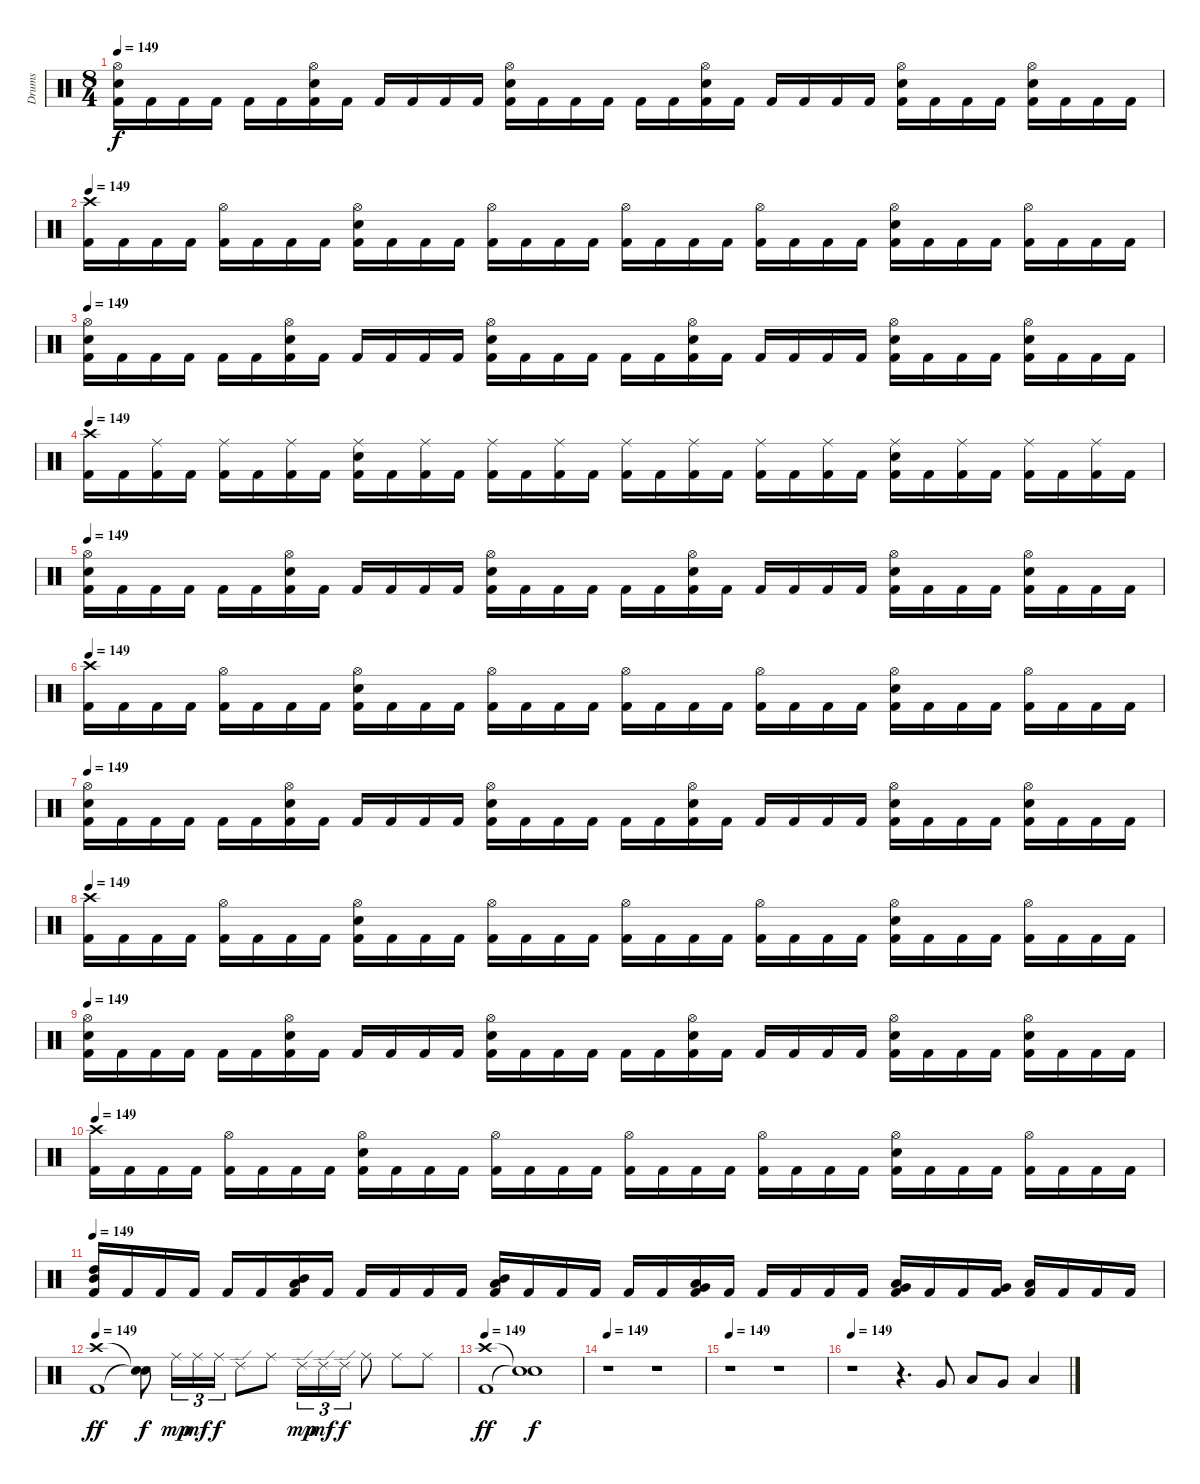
\track ("Drums" "Drums") {instrument percussion}
\staff {score}
\articulation defaults
\ts (8 4)
\tempo 149
\clef neutral
\ks c
("Hi-Hat (open)" "Electric Snare (hit)" "Kick (hit) 2").16{dy f} "Kick (hit) 2".16 "Kick (hit) 2".16 "Kick (hit) 2".16 "Kick (hit) 2".16 "Kick (hit) 2".16 ("Hi-Hat (open)" "Electric Snare (hit)" "Kick (hit) 2").16 "Kick (hit) 2".16 "Kick (hit) 2".16 "Kick (hit) 2".16 "Kick (hit) 2".16 "Kick (hit) 2".16 ("Hi-Hat (open)" "Electric Snare (hit)" "Kick (hit) 2").16 "Kick (hit) 2".16 "Kick (hit) 2".16 "Kick (hit) 2".16 "Kick (hit) 2".16 "Kick (hit) 2".16 ("Hi-Hat (open)" "Electric Snare (hit)" "Kick (hit) 2").16 "Kick (hit) 2".16 "Kick (hit) 2".16 "Kick (hit) 2".16 "Kick (hit) 2".16 "Kick (hit) 2".16 ("Hi-Hat (open)" "Electric Snare (hit)" "Kick (hit) 2").16 "Kick (hit) 2".16 "Kick (hit) 2".16 "Kick (hit) 2".16 ("Hi-Hat (open)" "Electric Snare (hit)" "Kick (hit) 2").16 "Kick (hit) 2".16 "Kick (hit) 2".16 "Kick (hit) 2".16 |
\tempo 149
("Crash high (hit)" "Kick (hit) 2").16 "Kick (hit) 2".16 "Kick (hit) 2".16 "Kick (hit) 2".16 ("Hi-Hat (open)" "Kick (hit) 2").16 "Kick (hit) 2".16 "Kick (hit) 2".16 "Kick (hit) 2".16 ("Hi-Hat (open)" "Electric Snare (hit)" "Kick (hit) 2").16 "Kick (hit) 2".16 "Kick (hit) 2".16 "Kick (hit) 2".16 ("Hi-Hat (open)" "Kick (hit) 2").16 "Kick (hit) 2".16 "Kick (hit) 2".16 "Kick (hit) 2".16 ("Hi-Hat (open)" "Kick (hit) 2").16 "Kick (hit) 2".16 "Kick (hit) 2".16 "Kick (hit) 2".16 ("Hi-Hat (open)" "Kick (hit) 2").16 "Kick (hit) 2".16 "Kick (hit) 2".16 "Kick (hit) 2".16 ("Hi-Hat (open)" "Electric Snare (hit)" "Kick (hit) 2").16 "Kick (hit) 2".16 "Kick (hit) 2".16 "Kick (hit) 2".16 ("Hi-Hat (open)" "Kick (hit) 2").16 "Kick (hit) 2".16 "Kick (hit) 2".16 "Kick (hit) 2".16 |
\tempo 149
("Hi-Hat (open)" "Electric Snare (hit)" "Kick (hit) 2").16 "Kick (hit) 2".16 "Kick (hit) 2".16 "Kick (hit) 2".16 "Kick (hit) 2".16 "Kick (hit) 2".16 ("Hi-Hat (open)" "Electric Snare (hit)" "Kick (hit) 2").16 "Kick (hit) 2".16 "Kick (hit) 2".16 "Kick (hit) 2".16 "Kick (hit) 2".16 "Kick (hit) 2".16 ("Hi-Hat (open)" "Electric Snare (hit)" "Kick (hit) 2").16 "Kick (hit) 2".16 "Kick (hit) 2".16 "Kick (hit) 2".16 "Kick (hit) 2".16 "Kick (hit) 2".16 ("Hi-Hat (open)" "Electric Snare (hit)" "Kick (hit) 2").16 "Kick (hit) 2".16 "Kick (hit) 2".16 "Kick (hit) 2".16 "Kick (hit) 2".16 "Kick (hit) 2".16 ("Hi-Hat (open)" "Electric Snare (hit)" "Kick (hit) 2").16 "Kick (hit) 2".16 "Kick (hit) 2".16 "Kick (hit) 2".16 ("Hi-Hat (open)" "Electric Snare (hit)" "Kick (hit) 2").16 "Kick (hit) 2".16 "Kick (hit) 2".16 "Kick (hit) 2".16 |
\tempo 149
("Crash high (hit)" "Kick (hit) 2").16 "Kick (hit) 2".16 ("Ride (middle)" "Kick (hit) 2").16 "Kick (hit) 2".16 ("Ride (middle)" "Kick (hit) 2").16 "Kick (hit) 2".16 ("Ride (middle)" "Kick (hit) 2").16 "Kick (hit) 2".16 ("Ride (middle)" "Electric Snare (hit)" "Kick (hit) 2").16 "Kick (hit) 2".16 ("Ride (middle)" "Kick (hit) 2").16 "Kick (hit) 2".16 ("Ride (middle)" "Kick (hit) 2").16 "Kick (hit) 2".16 ("Ride (middle)" "Kick (hit) 2").16 "Kick (hit) 2".16 ("Ride (middle)" "Kick (hit) 2").16 "Kick (hit) 2".16 ("Ride (middle)" "Kick (hit) 2").16 "Kick (hit) 2".16 ("Ride (middle)" "Kick (hit) 2").16 "Kick (hit) 2".16 ("Ride (middle)" "Kick (hit) 2").16 "Kick (hit) 2".16 ("Ride (middle)" "Electric Snare (hit)" "Kick (hit) 2").16 "Kick (hit) 2".16 ("Ride (middle)" "Kick (hit) 2").16 "Kick (hit) 2".16 ("Ride (middle)" "Kick (hit) 2").16 "Kick (hit) 2".16 ("Ride (middle)" "Kick (hit) 2").16 "Kick (hit) 2".16 |
\tempo 149
("Hi-Hat (open)" "Electric Snare (hit)" "Kick (hit) 2").16 "Kick (hit) 2".16 "Kick (hit) 2".16 "Kick (hit) 2".16 "Kick (hit) 2".16 "Kick (hit) 2".16 ("Hi-Hat (open)" "Electric Snare (hit)" "Kick (hit) 2").16 "Kick (hit) 2".16 "Kick (hit) 2".16 "Kick (hit) 2".16 "Kick (hit) 2".16 "Kick (hit) 2".16 ("Hi-Hat (open)" "Electric Snare (hit)" "Kick (hit) 2").16 "Kick (hit) 2".16 "Kick (hit) 2".16 "Kick (hit) 2".16 "Kick (hit) 2".16 "Kick (hit) 2".16 ("Hi-Hat (open)" "Electric Snare (hit)" "Kick (hit) 2").16 "Kick (hit) 2".16 "Kick (hit) 2".16 "Kick (hit) 2".16 "Kick (hit) 2".16 "Kick (hit) 2".16 ("Hi-Hat (open)" "Electric Snare (hit)" "Kick (hit) 2").16 "Kick (hit) 2".16 "Kick (hit) 2".16 "Kick (hit) 2".16 ("Hi-Hat (open)" "Electric Snare (hit)" "Kick (hit) 2").16 "Kick (hit) 2".16 "Kick (hit) 2".16 "Kick (hit) 2".16 |
\tempo 149
("Crash high (hit)" "Kick (hit) 2").16 "Kick (hit) 2".16 "Kick (hit) 2".16 "Kick (hit) 2".16 ("Hi-Hat (open)" "Kick (hit) 2").16 "Kick (hit) 2".16 "Kick (hit) 2".16 "Kick (hit) 2".16 ("Hi-Hat (open)" "Electric Snare (hit)" "Kick (hit) 2").16 "Kick (hit) 2".16 "Kick (hit) 2".16 "Kick (hit) 2".16 ("Hi-Hat (open)" "Kick (hit) 2").16 "Kick (hit) 2".16 "Kick (hit) 2".16 "Kick (hit) 2".16 ("Hi-Hat (open)" "Kick (hit) 2").16 "Kick (hit) 2".16 "Kick (hit) 2".16 "Kick (hit) 2".16 ("Hi-Hat (open)" "Kick (hit) 2").16 "Kick (hit) 2".16 "Kick (hit) 2".16 "Kick (hit) 2".16 ("Hi-Hat (open)" "Electric Snare (hit)" "Kick (hit) 2").16 "Kick (hit) 2".16 "Kick (hit) 2".16 "Kick (hit) 2".16 ("Hi-Hat (open)" "Kick (hit) 2").16 "Kick (hit) 2".16 "Kick (hit) 2".16 "Kick (hit) 2".16 |
\tempo 149
("Hi-Hat (open)" "Electric Snare (hit)" "Kick (hit) 2").16 "Kick (hit) 2".16 "Kick (hit) 2".16 "Kick (hit) 2".16 "Kick (hit) 2".16 "Kick (hit) 2".16 ("Hi-Hat (open)" "Electric Snare (hit)" "Kick (hit) 2").16 "Kick (hit) 2".16 "Kick (hit) 2".16 "Kick (hit) 2".16 "Kick (hit) 2".16 "Kick (hit) 2".16 ("Hi-Hat (open)" "Electric Snare (hit)" "Kick (hit) 2").16 "Kick (hit) 2".16 "Kick (hit) 2".16 "Kick (hit) 2".16 "Kick (hit) 2".16 "Kick (hit) 2".16 ("Hi-Hat (open)" "Electric Snare (hit)" "Kick (hit) 2").16 "Kick (hit) 2".16 "Kick (hit) 2".16 "Kick (hit) 2".16 "Kick (hit) 2".16 "Kick (hit) 2".16 ("Hi-Hat (open)" "Electric Snare (hit)" "Kick (hit) 2").16 "Kick (hit) 2".16 "Kick (hit) 2".16 "Kick (hit) 2".16 ("Hi-Hat (open)" "Electric Snare (hit)" "Kick (hit) 2").16 "Kick (hit) 2".16 "Kick (hit) 2".16 "Kick (hit) 2".16 |
\tempo 149
("Crash high (hit)" "Kick (hit) 2").16 "Kick (hit) 2".16 "Kick (hit) 2".16 "Kick (hit) 2".16 ("Hi-Hat (open)" "Kick (hit) 2").16 "Kick (hit) 2".16 "Kick (hit) 2".16 "Kick (hit) 2".16 ("Hi-Hat (open)" "Electric Snare (hit)" "Kick (hit) 2").16 "Kick (hit) 2".16 "Kick (hit) 2".16 "Kick (hit) 2".16 ("Hi-Hat (open)" "Kick (hit) 2").16 "Kick (hit) 2".16 "Kick (hit) 2".16 "Kick (hit) 2".16 ("Hi-Hat (open)" "Kick (hit) 2").16 "Kick (hit) 2".16 "Kick (hit) 2".16 "Kick (hit) 2".16 ("Hi-Hat (open)" "Kick (hit) 2").16 "Kick (hit) 2".16 "Kick (hit) 2".16 "Kick (hit) 2".16 ("Hi-Hat (open)" "Electric Snare (hit)" "Kick (hit) 2").16 "Kick (hit) 2".16 "Kick (hit) 2".16 "Kick (hit) 2".16 ("Hi-Hat (open)" "Kick (hit) 2").16 "Kick (hit) 2".16 "Kick (hit) 2".16 "Kick (hit) 2".16 |
\tempo 149
("Hi-Hat (open)" "Electric Snare (hit)" "Kick (hit) 2").16 "Kick (hit) 2".16 "Kick (hit) 2".16 "Kick (hit) 2".16 "Kick (hit) 2".16 "Kick (hit) 2".16 ("Hi-Hat (open)" "Electric Snare (hit)" "Kick (hit) 2").16 "Kick (hit) 2".16 "Kick (hit) 2".16 "Kick (hit) 2".16 "Kick (hit) 2".16 "Kick (hit) 2".16 ("Hi-Hat (open)" "Electric Snare (hit)" "Kick (hit) 2").16 "Kick (hit) 2".16 "Kick (hit) 2".16 "Kick (hit) 2".16 "Kick (hit) 2".16 "Kick (hit) 2".16 ("Hi-Hat (open)" "Electric Snare (hit)" "Kick (hit) 2").16 "Kick (hit) 2".16 "Kick (hit) 2".16 "Kick (hit) 2".16 "Kick (hit) 2".16 "Kick (hit) 2".16 ("Hi-Hat (open)" "Electric Snare (hit)" "Kick (hit) 2").16 "Kick (hit) 2".16 "Kick (hit) 2".16 "Kick (hit) 2".16 ("Hi-Hat (open)" "Electric Snare (hit)" "Kick (hit) 2").16 "Kick (hit) 2".16 "Kick (hit) 2".16 "Kick (hit) 2".16 |
\tempo 149
("Crash high (hit)" "Kick (hit) 2").16 "Kick (hit) 2".16 "Kick (hit) 2".16 "Kick (hit) 2".16 ("Hi-Hat (open)" "Kick (hit) 2").16 "Kick (hit) 2".16 "Kick (hit) 2".16 "Kick (hit) 2".16 ("Hi-Hat (open)" "Electric Snare (hit)" "Kick (hit) 2").16 "Kick (hit) 2".16 "Kick (hit) 2".16 "Kick (hit) 2".16 ("Hi-Hat (open)" "Kick (hit) 2").16 "Kick (hit) 2".16 "Kick (hit) 2".16 "Kick (hit) 2".16 ("Hi-Hat (open)" "Kick (hit) 2").16 "Kick (hit) 2".16 "Kick (hit) 2".16 "Kick (hit) 2".16 ("Hi-Hat (open)" "Kick (hit) 2").16 "Kick (hit) 2".16 "Kick (hit) 2".16 "Kick (hit) 2".16 ("Hi-Hat (open)" "Electric Snare (hit)" "Kick (hit) 2").16 "Kick (hit) 2".16 "Kick (hit) 2".16 "Kick (hit) 2".16 ("Hi-Hat (open)" "Kick (hit) 2").16 "Kick (hit) 2".16 "Kick (hit) 2".16 "Kick (hit) 2".16 |
\tempo 149
("High Tom (hit)" "Mid Tom (hit)" "Kick (hit) 2").16 "Kick (hit) 2".16 "Kick (hit) 2".16 "Kick (hit) 2".16 "Kick (hit) 2".16 "Kick (hit) 2".16 ("Mid Tom (hit)" "Low Tom (hit)" "Kick (hit) 2").16 "Kick (hit) 2".16 "Kick (hit) 2".16 "Kick (hit) 2".16 "Kick (hit) 2".16 "Kick (hit) 2".16 ("Mid Tom (hit)" "Low Tom (hit)" "Kick (hit) 2").16 "Kick (hit) 2".16 "Kick (hit) 2".16 "Kick (hit) 2".16 "Kick (hit) 2".16 "Kick (hit) 2".16 ("Low Tom (hit)" "Very Low Tom (hit)" "Kick (hit) 2").16 "Kick (hit) 2".16 "Kick (hit) 2".16 "Kick (hit) 2".16 "Kick (hit) 2".16 "Kick (hit) 2".16 ("Low Tom (hit)" "Very Low Tom (hit)" "Kick (hit) 2").16 "Kick (hit) 2".16 "Kick (hit) 2".16 ("Very Low Tom (hit)" "Kick (hit) 2").16 ("Low Floor Tom (hit)" "Kick (hit) 2").16 "Kick (hit) 2".16 "Kick (hit) 2".16 "Kick (hit) 2".16 |
\tempo 149
("Crash high (hit)" "Kick (hit) 2").1{dy ff} ("Snare (hit)"{t} "Snare (hit)"{t}).8{dy f} "Ride (middle)".16{tu (3 2) dy mp} "Ride (middle)".16{tu (3 2) dy mf} "Ride (middle)".16{tu (3 2) dy f} "Ride (edge) 2".8 "Ride (middle)".8 "Ride (edge) 2".16{tu (3 2) dy mp} "Ride (edge) 2".16{tu (3 2) dy mf} "Ride (edge) 2".16{tu (3 2) dy f} "Ride (middle)".8 "Ride (middle)".8 "Ride (middle)".8 |
\tempo 149
("Crash high (hit)" "Kick (hit) 2").1{dy ff} ("Snare (hit)"{t} "Snare (hit)"{t}).1{dy f} |
\tempo 149
r.1 r.1 |
\tempo 149
r.1 r.1 |
\tempo 149
r.1 r.4{d} "Very Low Tom (hit)".8 "Low Tom (hit)".8 "Very Low Tom (hit)".8 "Low Floor Tom (hit)".4
